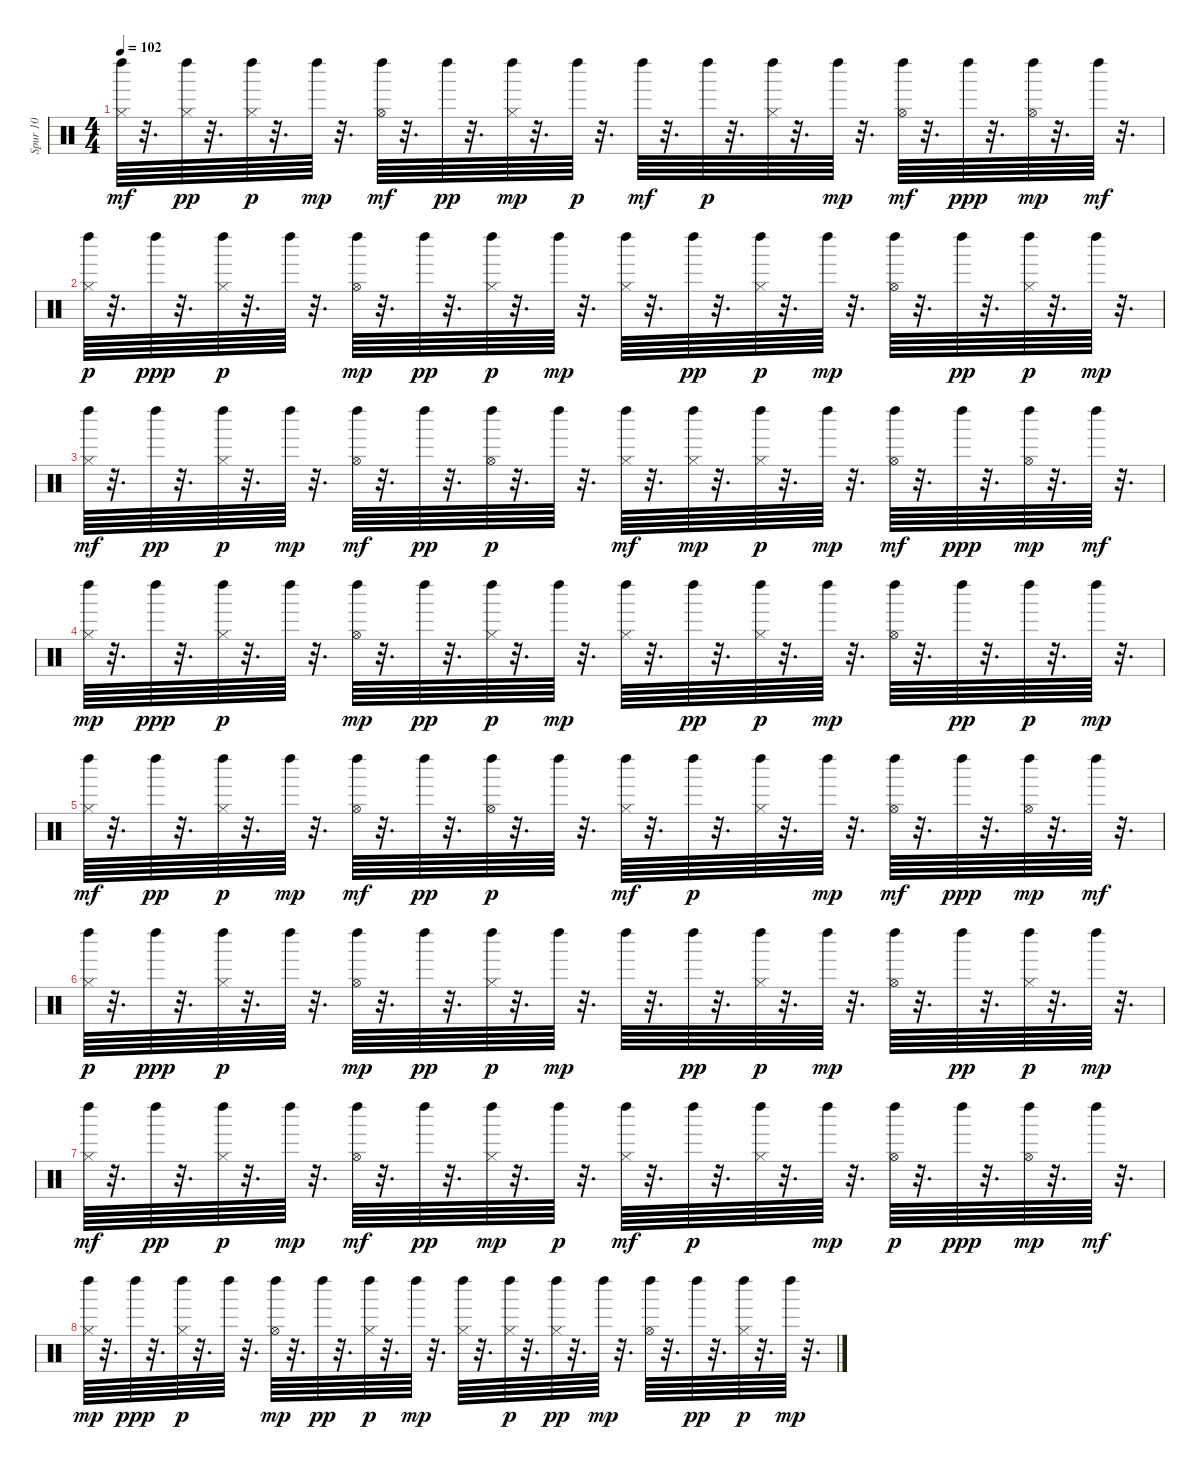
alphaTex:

\track ("Spur 10" "Spur 10") {instrument percussion}
\staff {score}
\articulation defaults
\ts (4 4)
\tempo 102
\clef neutral
\ks c
("Hi-Hat (closed)" "Left Maraca (hit)").64{dy mf} r.32{d} ("Hi-Hat (closed)" "Left Maraca (hit)").64{dy pp} r.32{d} ("Hi-Hat (closed)" "Left Maraca (hit)").64{dy p} r.32{d} "Left Maraca (hit)".64{dy mp} r.32{d} ("Hi-Hat (open)" "Left Maraca (hit)").64{dy mf} r.32{d} "Left Maraca (hit)".64{dy pp} r.32{d} ("Left Maraca (hit)" "Hi-Hat (closed)").64{dy mp} r.32{d} "Left Maraca (hit)".64{dy p} r.32{d} "Left Maraca (hit)".64{dy mf} r.32{d} "Left Maraca (hit)".64{dy p} r.32{d} ("Hi-Hat (closed)" "Left Maraca (hit)").64 r.32{d} "Left Maraca (hit)".64{dy mp} r.32{d} ("Hi-Hat (open)" "Left Maraca (hit)").64{dy mf} r.32{d} "Left Maraca (hit)".64{dy ppp} r.32{d} ("Hi-Hat (open)" "Left Maraca (hit)").64{dy mp} r.32{d} "Left Maraca (hit)".64{dy mf} r.32{d} |
("Left Maraca (hit)" "Hi-Hat (closed)").64{dy p} r.32{d} "Left Maraca (hit)".64{dy ppp} r.32{d} ("Hi-Hat (closed)" "Left Maraca (hit)").64{dy p} r.32{d} "Left Maraca (hit)".64 r.32{d} ("Hi-Hat (open)" "Left Maraca (hit)").64{dy mp} r.32{d} "Left Maraca (hit)".64{dy pp} r.32{d} ("Hi-Hat (closed)" "Left Maraca (hit)").64{dy p} r.32{d} "Left Maraca (hit)".64{dy mp} r.32{d} ("Hi-Hat (closed)" "Left Maraca (hit)").64 r.32{d} "Left Maraca (hit)".64{dy pp} r.32{d} ("Hi-Hat (closed)" "Left Maraca (hit)").64{dy p} r.32{d} "Left Maraca (hit)".64{dy mp} r.32{d} ("Hi-Hat (open)" "Left Maraca (hit)").64 r.32{d} "Left Maraca (hit)".64{dy pp} r.32{d} ("Left Maraca (hit)" "Hi-Hat (closed)").64{dy p} r.32{d} "Left Maraca (hit)".64{dy mp} r.32{d} |
("Hi-Hat (closed)" "Left Maraca (hit)").64{dy mf} r.32{d} "Left Maraca (hit)".64{dy pp} r.32{d} ("Hi-Hat (closed)" "Left Maraca (hit)").64{dy p} r.32{d} "Left Maraca (hit)".64{dy mp} r.32{d} ("Hi-Hat (open)" "Left Maraca (hit)").64{dy mf} r.32{d} "Left Maraca (hit)".64{dy pp} r.32{d} ("Hi-Hat (open)" "Left Maraca (hit)").64{dy p} r.32{d} "Left Maraca (hit)".64 r.32{d} ("Hi-Hat (closed)" "Left Maraca (hit)").64{dy mf} r.32{d} ("Left Maraca (hit)" "Hi-Hat (closed)").64{dy mp} r.32{d} ("Hi-Hat (closed)" "Left Maraca (hit)").64{dy p} r.32{d} "Left Maraca (hit)".64{dy mp} r.32{d} ("Hi-Hat (open)" "Left Maraca (hit)").64{dy mf} r.32{d} "Left Maraca (hit)".64{dy ppp} r.32{d} ("Hi-Hat (open)" "Left Maraca (hit)").64{dy mp} r.32{d} "Left Maraca (hit)".64{dy mf} r.32{d} |
("Left Maraca (hit)" "Hi-Hat (closed)").64{dy mp} r.32{d} "Left Maraca (hit)".64{dy ppp} r.32{d} ("Hi-Hat (closed)" "Left Maraca (hit)").64{dy p} r.32{d} "Left Maraca (hit)".64 r.32{d} ("Hi-Hat (open)" "Left Maraca (hit)").64{dy mp} r.32{d} "Left Maraca (hit)".64{dy pp} r.32{d} ("Hi-Hat (closed)" "Left Maraca (hit)").64{dy p} r.32{d} "Left Maraca (hit)".64{dy mp} r.32{d} ("Hi-Hat (closed)" "Left Maraca (hit)").64 r.32{d} "Left Maraca (hit)".64{dy pp} r.32{d} ("Hi-Hat (closed)" "Left Maraca (hit)").64{dy p} r.32{d} "Left Maraca (hit)".64{dy mp} r.32{d} ("Hi-Hat (open)" "Left Maraca (hit)").64 r.32{d} "Left Maraca (hit)".64{dy pp} r.32{d} "Left Maraca (hit)".64{dy p} r.32{d} "Left Maraca (hit)".64{dy mp} r.32{d} |
("Hi-Hat (closed)" "Left Maraca (hit)").64{dy mf} r.32{d} "Left Maraca (hit)".64{dy pp} r.32{d} ("Hi-Hat (closed)" "Left Maraca (hit)").64{dy p} r.32{d} "Left Maraca (hit)".64{dy mp} r.32{d} ("Hi-Hat (open)" "Left Maraca (hit)").64{dy mf} r.32{d} "Left Maraca (hit)".64{dy pp} r.32{d} ("Hi-Hat (open)" "Left Maraca (hit)").64{dy p} r.32{d} "Left Maraca (hit)".64 r.32{d} ("Hi-Hat (closed)" "Left Maraca (hit)").64{dy mf} r.32{d} "Left Maraca (hit)".64{dy p} r.32{d} ("Hi-Hat (closed)" "Left Maraca (hit)").64 r.32{d} "Left Maraca (hit)".64{dy mp} r.32{d} ("Hi-Hat (open)" "Left Maraca (hit)").64{dy mf} r.32{d} "Left Maraca (hit)".64{dy ppp} r.32{d} ("Hi-Hat (open)" "Left Maraca (hit)").64{dy mp} r.32{d} "Left Maraca (hit)".64{dy mf} r.32{d} |
("Hi-Hat (closed)" "Left Maraca (hit)").64{dy p} r.32{d} "Left Maraca (hit)".64{dy ppp} r.32{d} ("Hi-Hat (closed)" "Left Maraca (hit)").64{dy p} r.32{d} "Left Maraca (hit)".64 r.32{d} ("Hi-Hat (open)" "Left Maraca (hit)").64{dy mp} r.32{d} "Left Maraca (hit)".64{dy pp} r.32{d} ("Hi-Hat (closed)" "Left Maraca (hit)").64{dy p} r.32{d} "Left Maraca (hit)".64{dy mp} r.32{d} "Left Maraca (hit)".64 r.32{d} "Left Maraca (hit)".64{dy pp} r.32{d} ("Hi-Hat (closed)" "Left Maraca (hit)").64{dy p} r.32{d} "Left Maraca (hit)".64{dy mp} r.32{d} ("Hi-Hat (open)" "Left Maraca (hit)").64 r.32{d} "Left Maraca (hit)".64{dy pp} r.32{d} ("Hi-Hat (closed)" "Left Maraca (hit)").64{dy p} r.32{d} "Left Maraca (hit)".64{dy mp} r.32{d} |
("Hi-Hat (closed)" "Left Maraca (hit)").64{dy mf} r.32{d} "Left Maraca (hit)".64{dy pp} r.32{d} ("Hi-Hat (closed)" "Left Maraca (hit)").64{dy p} r.32{d} "Left Maraca (hit)".64{dy mp} r.32{d} ("Hi-Hat (open)" "Left Maraca (hit)").64{dy mf} r.32{d} "Left Maraca (hit)".64{dy pp} r.32{d} ("Left Maraca (hit)" "Hi-Hat (closed)").64{dy mp} r.32{d} "Left Maraca (hit)".64{dy p} r.32{d} ("Hi-Hat (closed)" "Left Maraca (hit)").64{dy mf} r.32{d} "Left Maraca (hit)".64{dy p} r.32{d} ("Hi-Hat (closed)" "Left Maraca (hit)").64 r.32{d} "Left Maraca (hit)".64{dy mp} r.32{d} ("Left Maraca (hit)" "Hi-Hat (open)").64{dy p} r.32{d} "Left Maraca (hit)".64{dy ppp} r.32{d} ("Hi-Hat (open)" "Left Maraca (hit)").64{dy mp} r.32{d} "Left Maraca (hit)".64{dy mf} r.32{d} |
("Left Maraca (hit)" "Hi-Hat (closed)").64{dy mp} r.32{d} "Left Maraca (hit)".64{dy ppp} r.32{d} ("Hi-Hat (closed)" "Left Maraca (hit)").64{dy p} r.32{d} "Left Maraca (hit)".64 r.32{d} ("Hi-Hat (open)" "Left Maraca (hit)").64{dy mp} r.32{d} "Left Maraca (hit)".64{dy pp} r.32{d} ("Hi-Hat (closed)" "Left Maraca (hit)").64{dy p} r.32{d} "Left Maraca (hit)".64{dy mp} r.32{d} ("Hi-Hat (closed)" "Left Maraca (hit)").64 r.32{d} ("Left Maraca (hit)" "Hi-Hat (closed)").64{dy p} r.32{d} ("Left Maraca (hit)" "Hi-Hat (closed)").64{dy pp} r.32{d} "Left Maraca (hit)".64{dy mp} r.32{d} ("Hi-Hat (open)" "Left Maraca (hit)").64 r.32{d} "Left Maraca (hit)".64{dy pp} r.32{d} ("Hi-Hat (closed)" "Left Maraca (hit)").64{dy p} r.32{d} "Left Maraca (hit)".64{dy mp} r.32{d}
